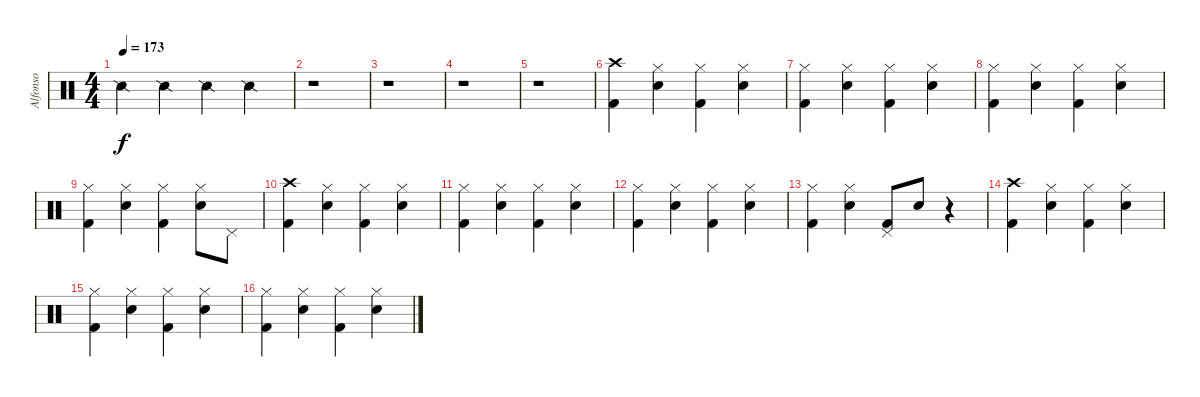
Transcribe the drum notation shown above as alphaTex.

\track ("Alfonso" "Alfonso") {instrument percussion}
\staff {score}
\articulation defaults
\ts (4 4)
\tempo 173
\clef neutral
\ks c "Snare (side stick) 2".4{dy f} "Snare (side stick) 2".4 "Snare (side stick) 2".4 "Snare (side stick) 2".4
|
r.1 |
r.1 |
r.1 |
r.1 |
("Kick (hit) 2" "Crash high (hit)").4 ("Electric Snare (hit)" "Hi-Hat (closed)").4 ("Kick (hit) 2" "Hi-Hat (closed)").4 ("Electric Snare (hit)" "Hi-Hat (closed)").4 |
("Kick (hit) 2" "Hi-Hat (closed)").4 ("Electric Snare (hit)" "Hi-Hat (closed)").4 ("Kick (hit) 2" "Hi-Hat (closed)").4 ("Electric Snare (hit)" "Hi-Hat (closed)").4 |
("Kick (hit) 2" "Hi-Hat (closed)").4 ("Electric Snare (hit)" "Hi-Hat (closed)").4 ("Kick (hit) 2" "Hi-Hat (closed)").4 ("Electric Snare (hit)" "Hi-Hat (closed)").4 |
("Kick (hit) 2" "Hi-Hat (closed)").4 ("Electric Snare (hit)" "Hi-Hat (closed)").4 ("Kick (hit) 2" "Hi-Hat (closed)").4 ("Electric Snare (hit)" "Hi-Hat (closed)").8 "Pedal Hi-Hat (hit)".8 |
("Kick (hit) 2" "Crash high (hit)").4 ("Electric Snare (hit)" "Hi-Hat (closed)").4 ("Kick (hit) 2" "Hi-Hat (closed)").4 ("Electric Snare (hit)" "Hi-Hat (closed)").4 |
("Kick (hit) 2" "Hi-Hat (closed)").4 ("Electric Snare (hit)" "Hi-Hat (closed)").4 ("Kick (hit) 2" "Hi-Hat (closed)").4 ("Electric Snare (hit)" "Hi-Hat (closed)").4 |
("Kick (hit) 2" "Hi-Hat (closed)").4 ("Electric Snare (hit)" "Hi-Hat (closed)").4 ("Kick (hit) 2" "Hi-Hat (closed)").4 ("Electric Snare (hit)" "Hi-Hat (closed)").4 |
("Kick (hit) 2" "Hi-Hat (closed)").4 ("Electric Snare (hit)" "Hi-Hat (closed)").4 ("Kick (hit) 2" "Pedal Hi-Hat (hit)").8 "Electric Snare (hit)".8 r.4 |
("Kick (hit) 2" "Crash high (hit)").4 ("Electric Snare (hit)" "Hi-Hat (closed)").4 ("Kick (hit) 2" "Hi-Hat (closed)").4 ("Electric Snare (hit)" "Hi-Hat (closed)").4 |
("Kick (hit) 2" "Hi-Hat (closed)").4 ("Electric Snare (hit)" "Hi-Hat (closed)").4 ("Kick (hit) 2" "Hi-Hat (closed)").4 ("Electric Snare (hit)" "Hi-Hat (closed)").4 |
("Kick (hit) 2" "Hi-Hat (closed)").4 ("Electric Snare (hit)" "Hi-Hat (closed)").4 ("Kick (hit) 2" "Hi-Hat (closed)").4 ("Electric Snare (hit)" "Hi-Hat (closed)").4
